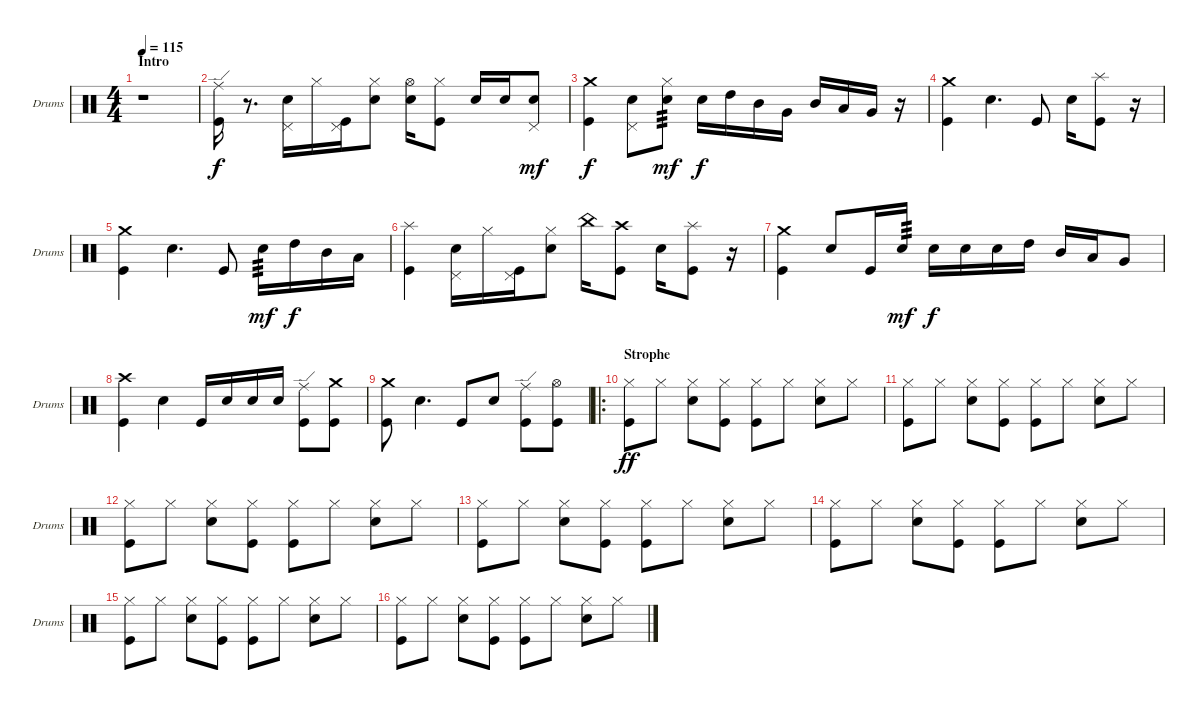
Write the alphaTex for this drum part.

\defaultSystemsLayout 4
\bracketExtendMode groupsimilarinstruments
\singleTrackTrackNamePolicy allsystems
\multiTrackTrackNamePolicy allsystems
\firstSystemTrackNameOrientation horizontal
\otherSystemsTrackNameOrientation horizontal
\track ("Drumkit" "Drums") {instrument percussion}
\staff {score}
\articulation defaults
\ts (4 4)
\section ("" "Intro")
\tempo 115
\clef neutral
\ks c
r.1{dy f} |
("Kick (hit)" "Ride (edge)").16 r.8{d} ("Snare (hit) 2" "Pedal Hi-Hat (hit)").16 "Hi-Hat (closed)".16 ("Kick (hit)" "Pedal Hi-Hat (hit)").16 ("Snare (hit) 2" "Hi-Hat (closed)").8 ("Snare (hit) 2" "Hi-Hat (open)").16 ("Kick (hit)" "Hi-Hat (closed)").8 "Snare (hit) 2".16 "Snare (hit) 2".16 ("Snare (hit) 2" "Pedal Hi-Hat (hit)").8{dy mf} |
("Crash medium (hit)" "Kick (hit)").4{dy f} ("Snare (hit) 2" "Pedal Hi-Hat (hit)").8 ("Snare (hit) 2" "Hi-Hat (closed)").8{tp 3 dy mf} "Snare (hit) 2".16{dy f} "High Tom (hit)".16 "Mid Tom (hit)".16 "Very Low Tom (hit)".16 "Mid Tom (hit)".16 "Low Tom (hit)".16 "Very Low Tom (hit)".16 r.16 |
("Crash medium (hit)" "Kick (hit)").4 "Snare (hit) 2".4{d} "Kick (hit)".8 "Snare (hit) 2".16 ("Kick (hit)" "Splash (hit)").8 r.16 |
("Kick (hit)" "Crash medium (hit)").4 "Snare (hit) 2".4{d} "Kick (hit)".8 "Snare (hit) 2".16{tp 3 dy mf} "High Tom (hit)".16{dy f} "Mid Tom (hit)".16 "Low Tom (hit)".16 |
("Kick (hit)" "Splash (hit)").4 ("Snare (hit) 2" "Pedal Hi-Hat (hit)").16 "Hi-Hat (closed)".16 ("Kick (hit)" "Pedal Hi-Hat (hit)").16 ("Snare (hit) 2" "Hi-Hat (closed)").8 "China (hit)".16 ("Kick (hit)" "Crash high (hit)").8 "Snare (hit) 2".16 ("Kick (hit)" "Splash (hit)").8 r.16 |
("Kick (hit)" "Crash medium (hit)").4 "Snare (hit) 2".8 "Kick (hit)".16 "Snare (hit) 2".16{tp 3 dy mf} "Snare (hit) 2".16{dy f} "Snare (hit) 2".16 "Snare (hit) 2".16 "High Tom (hit)".16 "Mid Tom (hit)".16 "Low Tom (hit)".16 "Very Low Tom (hit)".8 |
("Kick (hit)" "Crash high (hit)").4 "Snare (hit) 2".4 "Kick (hit)".16 "Snare (hit) 2".16 "Snare (hit) 2".16 "Snare (hit) 2".16 ("Kick (hit)" "Ride (edge)").8 ("Kick (hit)" "Crash medium (hit)").8 |
("Kick (hit)" "Crash medium (hit)").8 "Snare (hit) 2".4{d} "Kick (hit)".8 "Snare (hit) 2".8 ("Kick (hit)" "Ride (edge)").8 ("Kick (hit)" "Hi-Hat (open)").8 |
\ro
\section ("" "Strophe")
("Kick (hit)" "Hi-Hat (closed)").8{dy ff} "Hi-Hat (closed)".8 ("Hi-Hat (closed)" "Snare (hit) 2").8 ("Kick (hit)" "Hi-Hat (closed)").8 ("Hi-Hat (closed)" "Kick (hit)").8 "Hi-Hat (closed)".8 ("Hi-Hat (closed)" "Snare (hit) 2").8 "Hi-Hat (closed)".8 |
("Kick (hit)" "Hi-Hat (closed)").8 "Hi-Hat (closed)".8 ("Hi-Hat (closed)" "Snare (hit) 2").8 ("Kick (hit)" "Hi-Hat (closed)").8 ("Hi-Hat (closed)" "Kick (hit)").8 "Hi-Hat (closed)".8 ("Hi-Hat (closed)" "Snare (hit) 2").8 "Hi-Hat (closed)".8 |
("Kick (hit)" "Hi-Hat (closed)").8 "Hi-Hat (closed)".8 ("Hi-Hat (closed)" "Snare (hit) 2").8 ("Kick (hit)" "Hi-Hat (closed)").8 ("Hi-Hat (closed)" "Kick (hit)").8 "Hi-Hat (closed)".8 ("Hi-Hat (closed)" "Snare (hit) 2").8 "Hi-Hat (closed)".8 |
("Kick (hit)" "Hi-Hat (closed)").8 "Hi-Hat (closed)".8 ("Hi-Hat (closed)" "Snare (hit) 2").8 ("Kick (hit)" "Hi-Hat (closed)").8 ("Hi-Hat (closed)" "Kick (hit)").8 "Hi-Hat (closed)".8 ("Hi-Hat (closed)" "Snare (hit) 2").8 "Hi-Hat (closed)".8 |
("Kick (hit)" "Hi-Hat (closed)").8 "Hi-Hat (closed)".8 ("Hi-Hat (closed)" "Snare (hit) 2").8 ("Kick (hit)" "Hi-Hat (closed)").8 ("Hi-Hat (closed)" "Kick (hit)").8 "Hi-Hat (closed)".8 ("Hi-Hat (closed)" "Snare (hit) 2").8 "Hi-Hat (closed)".8 |
("Kick (hit)" "Hi-Hat (closed)").8 "Hi-Hat (closed)".8 ("Hi-Hat (closed)" "Snare (hit) 2").8 ("Kick (hit)" "Hi-Hat (closed)").8 ("Hi-Hat (closed)" "Kick (hit)").8 "Hi-Hat (closed)".8 ("Hi-Hat (closed)" "Snare (hit) 2").8 "Hi-Hat (closed)".8 |
("Kick (hit)" "Hi-Hat (closed)").8 "Hi-Hat (closed)".8 ("Hi-Hat (closed)" "Snare (hit) 2").8 ("Kick (hit)" "Hi-Hat (closed)").8 ("Hi-Hat (closed)" "Kick (hit)").8 "Hi-Hat (closed)".8 ("Hi-Hat (closed)" "Snare (hit) 2").8 "Hi-Hat (closed)".8
